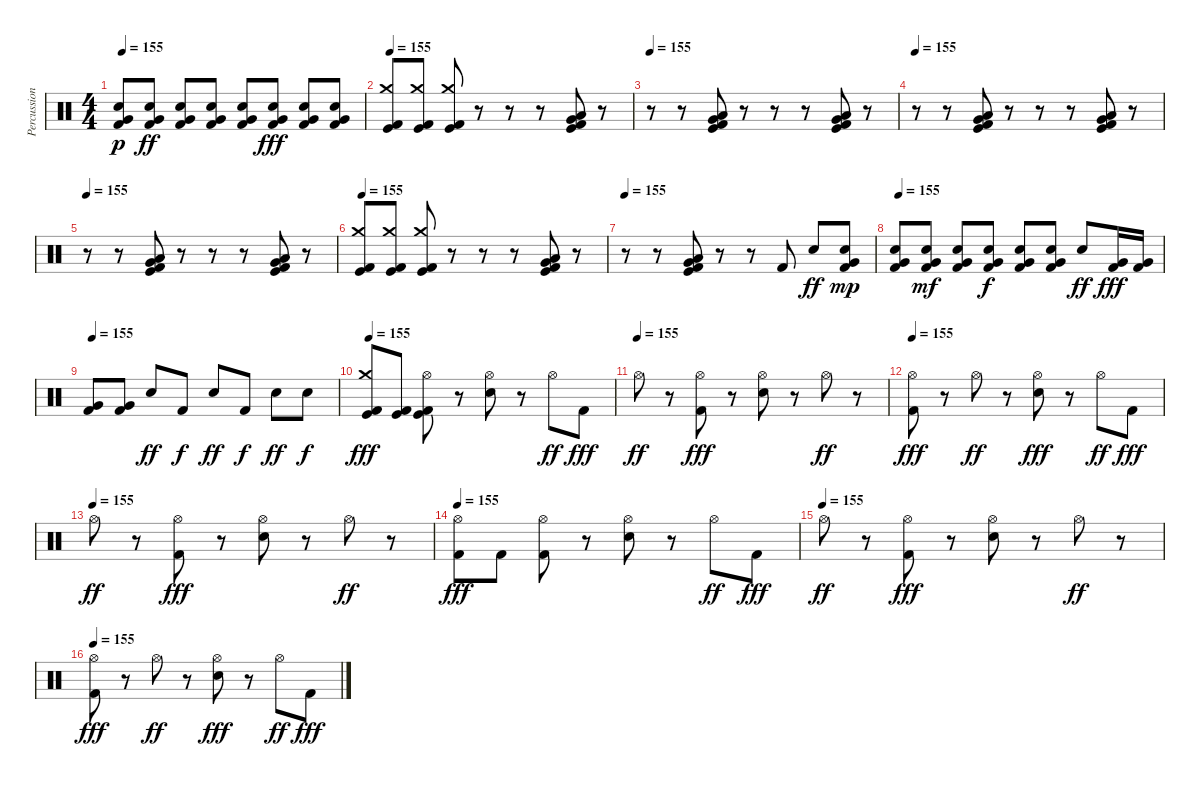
\track ("Percussion" "Percussion") {instrument percussion}
\staff {score}
\articulation defaults
\ts (4 4)
\tempo 155
\clef neutral
\ks c
("Electric Snare (hit)" "Very Low Tom (hit)" "Kick (hit) 2").8{dy p} ("Electric Snare (hit)" "Very Low Tom (hit)" "Kick (hit) 2").8{dy ff} ("Electric Snare (hit)" "Very Low Tom (hit)" "Kick (hit) 2").8 ("Electric Snare (hit)" "Very Low Tom (hit)" "Kick (hit) 2").8 ("Electric Snare (hit)" "Very Low Tom (hit)" "Kick (hit) 2").8 ("Electric Snare (hit)" "Very Low Tom (hit)" "Kick (hit) 2").8{dy fff} ("Electric Snare (hit)" "Very Low Tom (hit)" "Kick (hit) 2").8 ("Electric Snare (hit)" "Very Low Tom (hit)" "Kick (hit) 2").8 |
\tempo 155
("Crash medium (hit)" "Kick (hit)" "Kick (hit) 2").8 ("Crash medium (hit)" "Kick (hit)" "Kick (hit) 2").8 ("Crash medium (hit)" "Kick (hit)" "Kick (hit) 2").8 r.8 r.8 r.8 ("Low Floor Tom (hit)" "Very Low Tom (hit)" "Kick (hit)" "Kick (hit) 2").8 r.8 |
\tempo 155
r.8 r.8 ("Low Floor Tom (hit)" "Very Low Tom (hit)" "Kick (hit)" "Kick (hit) 2").8 r.8 r.8 r.8 ("Low Floor Tom (hit)" "Very Low Tom (hit)" "Kick (hit)" "Kick (hit) 2").8 r.8 |
\tempo 155
r.8 r.8 ("Low Floor Tom (hit)" "Very Low Tom (hit)" "Kick (hit)" "Kick (hit) 2").8 r.8 r.8 r.8 ("Low Floor Tom (hit)" "Very Low Tom (hit)" "Kick (hit)" "Kick (hit) 2").8 r.8 |
\tempo 155
r.8 r.8 ("Low Floor Tom (hit)" "Very Low Tom (hit)" "Kick (hit)" "Kick (hit) 2").8 r.8 r.8 r.8 ("Low Floor Tom (hit)" "Very Low Tom (hit)" "Kick (hit)" "Kick (hit) 2").8 r.8 |
\tempo 155
("Crash medium (hit)" "Kick (hit)" "Kick (hit) 2").8 ("Crash medium (hit)" "Kick (hit)" "Kick (hit) 2").8 ("Crash medium (hit)" "Kick (hit)" "Kick (hit) 2").8 r.8 r.8 r.8 ("Low Floor Tom (hit)" "Very Low Tom (hit)" "Kick (hit)" "Kick (hit) 2").8 r.8 |
\tempo 155
r.8 r.8 ("Low Floor Tom (hit)" "Very Low Tom (hit)" "Kick (hit)" "Kick (hit) 2").8 r.8 r.8 "Kick (hit) 2".8 "Electric Snare (hit)".8{dy ff} ("Very Low Tom (hit)" "Electric Snare (hit)" "Kick (hit) 2").8{dy mp} |
\tempo 155
("Very Low Tom (hit)" "Electric Snare (hit)" "Kick (hit) 2").8 ("Very Low Tom (hit)" "Electric Snare (hit)" "Kick (hit) 2").8{dy mf} ("Very Low Tom (hit)" "Electric Snare (hit)" "Kick (hit) 2").8 ("Very Low Tom (hit)" "Electric Snare (hit)" "Kick (hit) 2").8{dy f} ("Very Low Tom (hit)" "Electric Snare (hit)" "Kick (hit) 2").8 ("Very Low Tom (hit)" "Electric Snare (hit)" "Kick (hit) 2").8 "Electric Snare (hit)".8{dy ff} ("Very Low Tom (hit)" "Kick (hit) 2").16{dy fff} ("Very Low Tom (hit)" "Kick (hit) 2").16 |
\tempo 155
("Very Low Tom (hit)" "Kick (hit) 2").8 ("Very Low Tom (hit)" "Kick (hit) 2").8 "Electric Snare (hit)".8{dy ff} "Kick (hit) 2".8{dy f} "Electric Snare (hit)".8{dy ff} "Kick (hit) 2".8{dy f} "Electric Snare (hit)".8{dy ff} "Snare (hit)".8{dy f} |
\tempo 155
("Crash medium (hit)" "Kick (hit)" "Kick (hit) 2").8{dy fff} ("Kick (hit)" "Kick (hit) 2").8 ("Hi-Hat (open)" "Kick (hit)" "Kick (hit) 2").8 r.8 ("Hi-Hat (open)" "Electric Snare (hit)").8 r.8 "Hi-Hat (open)".8{dy ff} "Kick (hit) 2".8{dy fff} |
\tempo (155)
"Hi-Hat (open)".8{dy ff} r.8 ("Hi-Hat (open)" "Kick (hit) 2").8{dy fff} r.8 ("Hi-Hat (open)" "Electric Snare (hit)").8 r.8 "Hi-Hat (open)".8{dy ff} r.8 |
\tempo 155
("Hi-Hat (open)" "Kick (hit) 2").8{dy fff} r.8 "Hi-Hat (open)".8{dy ff} r.8 ("Hi-Hat (open)" "Electric Snare (hit)").8{dy fff} r.8 "Hi-Hat (open)".8{dy ff} "Kick (hit) 2".8{dy fff} |
\tempo (155)
"Hi-Hat (open)".8{dy ff} r.8 ("Hi-Hat (open)" "Kick (hit) 2").8{dy fff} r.8 ("Hi-Hat (open)" "Electric Snare (hit)").8 r.8 "Hi-Hat (open)".8{dy ff} r.8 |
\tempo 155
("Hi-Hat (open)" "Kick (hit) 2").8{dy fff} "Kick (hit) 2".8 ("Hi-Hat (open)" "Kick (hit) 2").8 r.8 ("Hi-Hat (open)" "Electric Snare (hit)").8 r.8 "Hi-Hat (open)".8{dy ff} "Kick (hit) 2".8{dy fff} |
\tempo (155)
"Hi-Hat (open)".8{dy ff} r.8 ("Hi-Hat (open)" "Kick (hit) 2").8{dy fff} r.8 ("Hi-Hat (open)" "Electric Snare (hit)").8 r.8 "Hi-Hat (open)".8{dy ff} r.8 |
\tempo 155
("Hi-Hat (open)" "Kick (hit) 2").8{dy fff} r.8 "Hi-Hat (open)".8{dy ff} r.8 ("Hi-Hat (open)" "Electric Snare (hit)").8{dy fff} r.8 "Hi-Hat (open)".8{dy ff} "Kick (hit) 2".8{dy fff}
